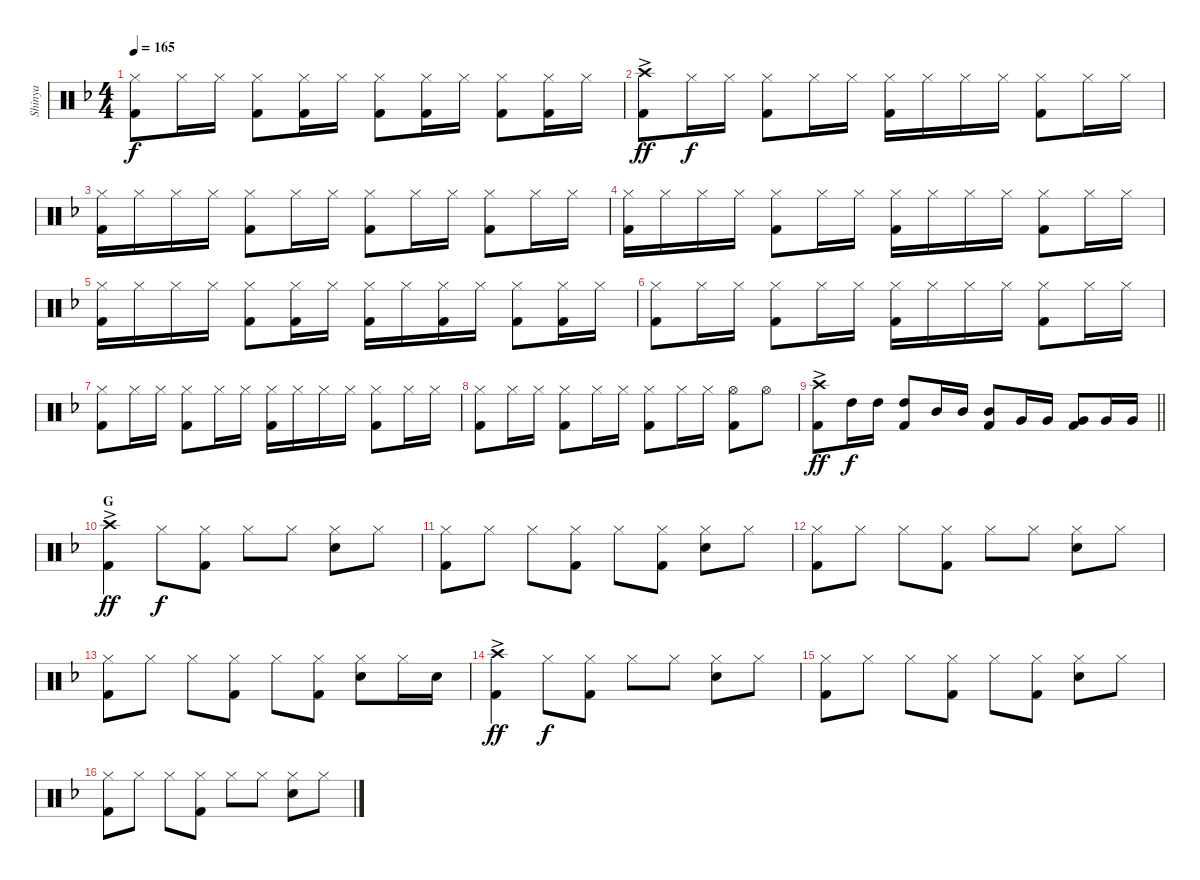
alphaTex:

\track ("Shinya" "Shinya") {instrument percussion}
\staff {score}
\articulation defaults
\ts (4 4)
\tempo 165
\clef neutral
\ks dminor
("Hi-Hat (closed)" "Kick (hit) 2").8{dy f} "Hi-Hat (closed)".16 "Hi-Hat (closed)".16 ("Hi-Hat (closed)" "Kick (hit) 2").8 ("Hi-Hat (closed)" "Kick (hit) 2").16 "Hi-Hat (closed)".16 ("Hi-Hat (closed)" "Kick (hit) 2").8 ("Hi-Hat (closed)" "Kick (hit) 2").16 "Hi-Hat (closed)".16 ("Hi-Hat (closed)" "Kick (hit) 2").8 ("Hi-Hat (closed)" "Kick (hit) 2").16 "Hi-Hat (closed)".16 |
("Crash high (hit)"{ac} "Kick (hit) 2").8{dy ff} "Hi-Hat (closed)".16{dy f} "Hi-Hat (closed)".16 ("Hi-Hat (closed)" "Kick (hit) 2").8 "Hi-Hat (closed)".16 "Hi-Hat (closed)".16 ("Hi-Hat (closed)" "Kick (hit) 2").16 "Hi-Hat (closed)".16 "Hi-Hat (closed)".16 "Hi-Hat (closed)".16 ("Hi-Hat (closed)" "Kick (hit) 2").8 "Hi-Hat (closed)".16 "Hi-Hat (closed)".16 |
("Hi-Hat (closed)" "Kick (hit) 2").16 "Hi-Hat (closed)".16 "Hi-Hat (closed)".16 "Hi-Hat (closed)".16 ("Hi-Hat (closed)" "Kick (hit) 2").8 "Hi-Hat (closed)".16 "Hi-Hat (closed)".16 ("Hi-Hat (closed)" "Kick (hit) 2").8 "Hi-Hat (closed)".16 "Hi-Hat (closed)".16 ("Hi-Hat (closed)" "Kick (hit) 2").8 "Hi-Hat (closed)".16 "Hi-Hat (closed)".16 |
("Hi-Hat (closed)" "Kick (hit) 2").16 "Hi-Hat (closed)".16 "Hi-Hat (closed)".16 "Hi-Hat (closed)".16 ("Hi-Hat (closed)" "Kick (hit) 2").8 "Hi-Hat (closed)".16 "Hi-Hat (closed)".16 ("Hi-Hat (closed)" "Kick (hit) 2").16 "Hi-Hat (closed)".16 "Hi-Hat (closed)".16 "Hi-Hat (closed)".16 ("Hi-Hat (closed)" "Kick (hit) 2").8 "Hi-Hat (closed)".16 "Hi-Hat (closed)".16 |
("Hi-Hat (closed)" "Kick (hit) 2").16 "Hi-Hat (closed)".16 "Hi-Hat (closed)".16 "Hi-Hat (closed)".16 ("Hi-Hat (closed)" "Kick (hit) 2").8 ("Hi-Hat (closed)" "Kick (hit) 2").16 "Hi-Hat (closed)".16 ("Hi-Hat (closed)" "Kick (hit) 2").16 "Hi-Hat (closed)".16 ("Hi-Hat (closed)" "Kick (hit) 2").16 "Hi-Hat (closed)".16 ("Hi-Hat (closed)" "Kick (hit) 2").8 ("Hi-Hat (closed)" "Kick (hit) 2").16 "Hi-Hat (closed)".16 |
("Hi-Hat (closed)" "Kick (hit) 2").8 "Hi-Hat (closed)".16 "Hi-Hat (closed)".16 ("Hi-Hat (closed)" "Kick (hit) 2").8 "Hi-Hat (closed)".16 "Hi-Hat (closed)".16 ("Hi-Hat (closed)" "Kick (hit) 2").16 "Hi-Hat (closed)".16 "Hi-Hat (closed)".16 "Hi-Hat (closed)".16 ("Hi-Hat (closed)" "Kick (hit) 2").8 "Hi-Hat (closed)".16 "Hi-Hat (closed)".16 |
("Hi-Hat (closed)" "Kick (hit) 2").8 "Hi-Hat (closed)".16 "Hi-Hat (closed)".16 ("Hi-Hat (closed)" "Kick (hit) 2").8 "Hi-Hat (closed)".16 "Hi-Hat (closed)".16 ("Hi-Hat (closed)" "Kick (hit) 2").16 "Hi-Hat (closed)".16 "Hi-Hat (closed)".16 "Hi-Hat (closed)".16 ("Hi-Hat (closed)" "Kick (hit) 2").8 "Hi-Hat (closed)".16 "Hi-Hat (closed)".16 |
("Hi-Hat (closed)" "Kick (hit) 2").8 "Hi-Hat (closed)".16 "Hi-Hat (closed)".16 ("Hi-Hat (closed)" "Kick (hit) 2").8 "Hi-Hat (closed)".16 "Hi-Hat (closed)".16 ("Hi-Hat (closed)" "Kick (hit) 2").8 "Hi-Hat (closed)".16 "Hi-Hat (closed)".16 ("Hi-Hat (open)" "Kick (hit) 2").8 "Hi-Hat (open)".8 |
\barLineRight lightlight
("Crash high (hit)"{ac} "Kick (hit) 2").8{dy ff} "High Tom (hit)".16{dy f} "High Tom (hit)".16 ("High Tom (hit)" "Kick (hit) 2").8 "Mid Tom (hit)".16 "Mid Tom (hit)".16 ("Mid Tom (hit)" "Kick (hit) 2").8 "Very Low Tom (hit)".16 "Very Low Tom (hit)".16 ("Very Low Tom (hit)" "Kick (hit) 2").8 "Very Low Tom (hit)".16 "Very Low Tom (hit)".16 |
\section ("" "G")
("Crash high (hit)"{ac} "Kick (hit) 2").4{dy ff} "Hi-Hat (closed)".8{dy f} ("Hi-Hat (closed)" "Kick (hit) 2").8 "Hi-Hat (closed)".8 "Hi-Hat (closed)".8 ("Hi-Hat (closed)" "Snare (hit) 2").8 "Hi-Hat (closed)".8 |
("Hi-Hat (closed)" "Kick (hit) 2").8 "Hi-Hat (closed)".8 "Hi-Hat (closed)".8 ("Hi-Hat (closed)" "Kick (hit) 2").8 "Hi-Hat (closed)".8 ("Hi-Hat (closed)" "Kick (hit) 2").8 ("Hi-Hat (closed)" "Snare (hit) 2").8 "Hi-Hat (closed)".8 |
("Hi-Hat (closed)" "Kick (hit) 2").8 "Hi-Hat (closed)".8 "Hi-Hat (closed)".8 ("Hi-Hat (closed)" "Kick (hit) 2").8 "Hi-Hat (closed)".8 "Hi-Hat (closed)".8 ("Hi-Hat (closed)" "Snare (hit) 2").8 "Hi-Hat (closed)".8 |
("Hi-Hat (closed)" "Kick (hit) 2").8 "Hi-Hat (closed)".8 "Hi-Hat (closed)".8 ("Hi-Hat (closed)" "Kick (hit) 2").8 "Hi-Hat (closed)".8 ("Hi-Hat (closed)" "Kick (hit) 2").8 ("Hi-Hat (closed)" "Snare (hit) 2").8 "Hi-Hat (closed)".16 "Snare (hit) 2".16 |
("Crash high (hit)"{ac} "Kick (hit) 2").4{dy ff} "Hi-Hat (closed)".8{dy f} ("Hi-Hat (closed)" "Kick (hit) 2").8 "Hi-Hat (closed)".8 "Hi-Hat (closed)".8 ("Hi-Hat (closed)" "Snare (hit) 2").8 "Hi-Hat (closed)".8 |
("Hi-Hat (closed)" "Kick (hit) 2").8 "Hi-Hat (closed)".8 "Hi-Hat (closed)".8 ("Hi-Hat (closed)" "Kick (hit) 2").8 "Hi-Hat (closed)".8 ("Hi-Hat (closed)" "Kick (hit) 2").8 ("Hi-Hat (closed)" "Snare (hit) 2").8 "Hi-Hat (closed)".8 |
("Hi-Hat (closed)" "Kick (hit) 2").8 "Hi-Hat (closed)".8 "Hi-Hat (closed)".8 ("Hi-Hat (closed)" "Kick (hit) 2").8 "Hi-Hat (closed)".8 "Hi-Hat (closed)".8 ("Hi-Hat (closed)" "Snare (hit) 2").8 "Hi-Hat (closed)".8
